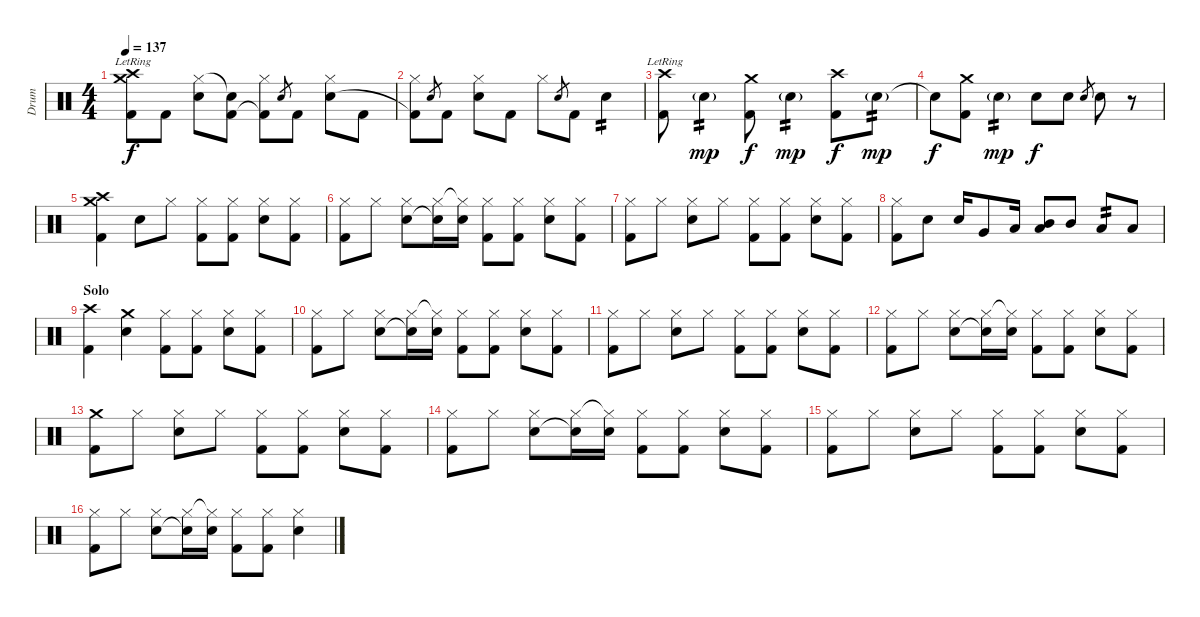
\track ("Drum" "Drum") {instrument percussion}
\staff {score}
\articulation defaults
\ts (4 4)
\tempo 137
\clef neutral
\ks c
("Kick (hit) 2" "Crash high (hit)"{lr} "Crash medium (hit)"{lr}).8{dy f} "Kick (hit) 2".8 ("Hi-Hat (closed)" "Electric Snare (hit)").8 ("Snare (hit)"{t} "Kick (hit) 2").8 ("Hi-Hat (closed)" "Kick (hit) 2"{t}).8 "Electric Snare (hit)".8{gr} "Kick (hit) 2".8 ("Hi-Hat (closed)" "Electric Snare (hit)").8 "Kick (hit) 2".8 |
("Hi-Hat (closed)" "Kick (hit) 2"{t}).8 "Electric Snare (hit)".8{gr} "Kick (hit) 2".8 ("Hi-Hat (closed)" "Electric Snare (hit)").8 "Kick (hit) 2".8 "Hi-Hat (closed)".8 "Electric Snare (hit)".8{gr} "Kick (hit) 2".8 "Electric Snare (hit)".4{tp 2} |
("Kick (hit) 2" "Crash high (hit)"{lr}).8 "Electric Snare (hit)"{g}.4{tp 2 dy mp} ("Kick (hit) 2" "Crash medium (hit)").8{dy f} "Electric Snare (hit)"{g}.4{tp 2 dy mp} ("Kick (hit) 2" "Crash high (hit)").8{dy f} "Electric Snare (hit)"{g}.8{tp 2 dy mp} |
"Snare (hit)"{t}.8{dy f} ("Kick (hit) 2" "Crash medium (hit)").8 "Electric Snare (hit)"{g}.4{tp 2 dy mp} "Electric Snare (hit)".8{dy f} "Electric Snare (hit)".8 "Electric Snare (hit)".8{gr} "Electric Snare (hit)".8 r.8 |
("Kick (hit) 2" "Crash high (hit)" "Crash medium (hit)").4 "Electric Snare (hit)".8 "Hi-Hat (closed)".8 ("Hi-Hat (closed)" "Kick (hit) 2").8 ("Hi-Hat (closed)" "Kick (hit) 2").8 ("Hi-Hat (closed)" "Electric Snare (hit)").8 ("Hi-Hat (closed)" "Kick (hit) 2").8 |
("Hi-Hat (closed)" "Kick (hit) 2").8 "Hi-Hat (closed)".8 ("Hi-Hat (closed)" "Electric Snare (hit)").8 ("Hi-Hat (closed)" "Electric Snare (hit)"{t}).16 ("Hi-Hat (closed)"{t} "Electric Snare (hit)").16 ("Hi-Hat (closed)" "Kick (hit) 2").8 ("Hi-Hat (closed)" "Kick (hit) 2").8 ("Hi-Hat (closed)" "Electric Snare (hit)").8 ("Hi-Hat (closed)" "Kick (hit) 2").8 |
("Hi-Hat (closed)" "Kick (hit) 2").8 "Hi-Hat (closed)".8 ("Hi-Hat (closed)" "Electric Snare (hit)").8 "Hi-Hat (closed)".8 ("Hi-Hat (closed)" "Kick (hit) 2").8 ("Hi-Hat (closed)" "Kick (hit) 2").8 ("Hi-Hat (closed)" "Electric Snare (hit)").8 ("Hi-Hat (closed)" "Kick (hit) 2").8 |
("Hi-Hat (closed)" "Kick (hit) 2").8 "Electric Snare (hit)".8 "Electric Snare (hit)".16 "Very Low Tom (hit)".8 "Low Floor Tom (hit)".16 ("Low Floor Tom (hit)" "Mid Tom (hit)").8 "Mid Tom (hit)".8 "Low Tom (hit)".8{tp 2} "Low Tom (hit)".8 |
\section ("" "Solo")
("Kick (hit) 2" "Crash high (hit)").4 ("Electric Snare (hit)" "Crash medium (hit)").4 ("Hi-Hat (closed)" "Kick (hit) 2").8 ("Hi-Hat (closed)" "Kick (hit) 2").8 ("Hi-Hat (closed)" "Electric Snare (hit)").8 ("Hi-Hat (closed)" "Kick (hit) 2").8 |
("Hi-Hat (closed)" "Kick (hit) 2").8 "Hi-Hat (closed)".8 ("Hi-Hat (closed)" "Electric Snare (hit)").8 ("Hi-Hat (closed)" "Electric Snare (hit)"{t}).16 ("Hi-Hat (closed)"{t} "Electric Snare (hit)").16 ("Hi-Hat (closed)" "Kick (hit) 2").8 ("Hi-Hat (closed)" "Kick (hit) 2").8 ("Hi-Hat (closed)" "Electric Snare (hit)").8 ("Hi-Hat (closed)" "Kick (hit) 2").8 |
("Hi-Hat (closed)" "Kick (hit) 2").8 "Hi-Hat (closed)".8 ("Hi-Hat (closed)" "Electric Snare (hit)").8 "Hi-Hat (closed)".8 ("Hi-Hat (closed)" "Kick (hit) 2").8 ("Hi-Hat (closed)" "Kick (hit) 2").8 ("Hi-Hat (closed)" "Electric Snare (hit)").8 ("Hi-Hat (closed)" "Kick (hit) 2").8 |
("Hi-Hat (closed)" "Kick (hit) 2").8 "Hi-Hat (closed)".8 ("Hi-Hat (closed)" "Electric Snare (hit)").8 ("Hi-Hat (closed)" "Electric Snare (hit)"{t}).16 ("Hi-Hat (closed)"{t} "Electric Snare (hit)").16 ("Hi-Hat (closed)" "Kick (hit) 2").8 ("Hi-Hat (closed)" "Kick (hit) 2").8 ("Hi-Hat (closed)" "Electric Snare (hit)").8 ("Hi-Hat (closed)" "Kick (hit) 2").8 |
("Kick (hit) 2" "Crash medium (hit)").8 "Hi-Hat (closed)".8 ("Hi-Hat (closed)" "Electric Snare (hit)").8 "Hi-Hat (closed)".8 ("Hi-Hat (closed)" "Kick (hit) 2").8 ("Hi-Hat (closed)" "Kick (hit) 2").8 ("Hi-Hat (closed)" "Electric Snare (hit)").8 ("Hi-Hat (closed)" "Kick (hit) 2").8 |
("Hi-Hat (closed)" "Kick (hit) 2").8 "Hi-Hat (closed)".8 ("Hi-Hat (closed)" "Electric Snare (hit)").8 ("Hi-Hat (closed)" "Electric Snare (hit)"{t}).16 ("Hi-Hat (closed)"{t} "Electric Snare (hit)").16 ("Hi-Hat (closed)" "Kick (hit) 2").8 ("Hi-Hat (closed)" "Kick (hit) 2").8 ("Hi-Hat (closed)" "Electric Snare (hit)").8 ("Hi-Hat (closed)" "Kick (hit) 2").8 |
("Hi-Hat (closed)" "Kick (hit) 2").8 "Hi-Hat (closed)".8 ("Hi-Hat (closed)" "Electric Snare (hit)").8 "Hi-Hat (closed)".8 ("Hi-Hat (closed)" "Kick (hit) 2").8 ("Hi-Hat (closed)" "Kick (hit) 2").8 ("Hi-Hat (closed)" "Electric Snare (hit)").8 ("Hi-Hat (closed)" "Kick (hit) 2").8 |
("Hi-Hat (closed)" "Kick (hit) 2").8 "Hi-Hat (closed)".8 ("Hi-Hat (closed)" "Electric Snare (hit)").8 ("Hi-Hat (closed)" "Electric Snare (hit)"{t}).16 ("Hi-Hat (closed)"{t} "Electric Snare (hit)").16 ("Hi-Hat (closed)" "Kick (hit) 2").8 ("Hi-Hat (closed)" "Kick (hit) 2").8 ("Hi-Hat (closed)" "Electric Snare (hit)").4
